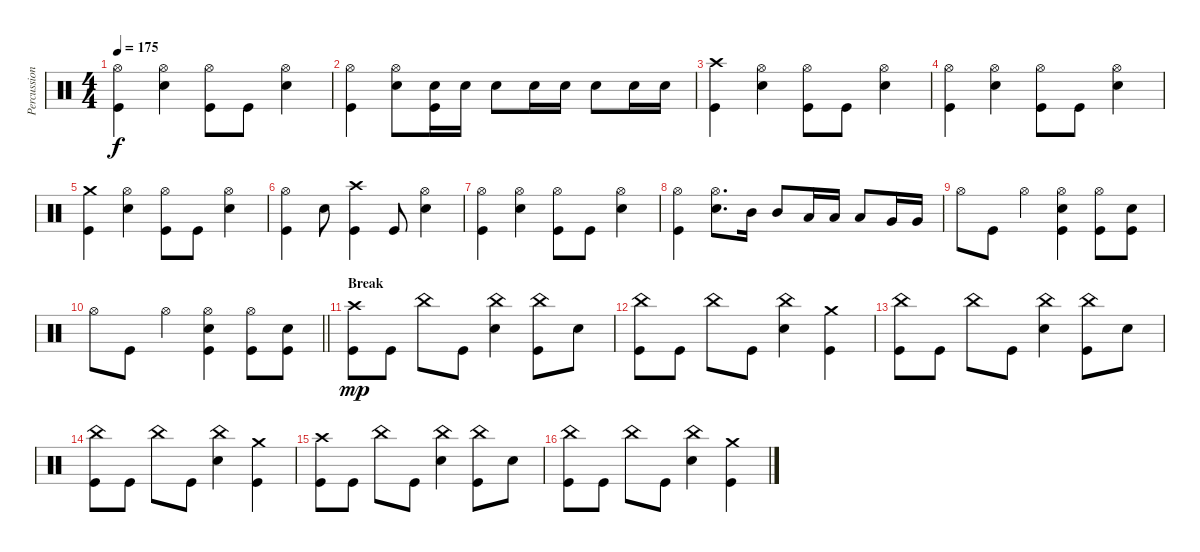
\track ("Percussion" "Percussion") {instrument percussion}
\staff {score}
\articulation defaults
\ts (4 4)
\tempo 175
\clef neutral
\ks c
("Hi-Hat (open)" "Kick (hit)").4{dy f} ("Hi-Hat (open)" "Electric Snare (hit)").4 ("Hi-Hat (open)" "Kick (hit)").8 "Kick (hit)".8 ("Hi-Hat (open)" "Electric Snare (hit)").4 |
("Hi-Hat (open)" "Kick (hit)").4 ("Hi-Hat (open)" "Electric Snare (hit)").8 ("Electric Snare (hit)" "Kick (hit)").16 "Electric Snare (hit)".16 "Electric Snare (hit)".8 "Electric Snare (hit)".16 "Electric Snare (hit)".16 "Electric Snare (hit)".8 "Electric Snare (hit)".16 "Electric Snare (hit)".16 |
("Crash high (hit)" "Kick (hit)").4 ("Hi-Hat (open)" "Electric Snare (hit)").4 ("Hi-Hat (open)" "Kick (hit)").8 "Kick (hit)".8 ("Hi-Hat (open)" "Electric Snare (hit)").4 |
("Hi-Hat (open)" "Kick (hit)").4 ("Hi-Hat (open)" "Electric Snare (hit)").4 ("Hi-Hat (open)" "Kick (hit)").8 "Kick (hit)".8 ("Hi-Hat (open)" "Electric Snare (hit)").4 |
("Crash medium (hit)" "Kick (hit)").4 ("Hi-Hat (open)" "Electric Snare (hit)").4 ("Hi-Hat (open)" "Kick (hit)").8 "Kick (hit)".8 ("Hi-Hat (open)" "Electric Snare (hit)").4 |
("Hi-Hat (open)" "Kick (hit)").4 "Electric Snare (hit)".8 ("Crash high (hit)" "Kick (hit)").4 "Kick (hit)".8 ("Hi-Hat (open)" "Electric Snare (hit)").4 |
("Hi-Hat (open)" "Kick (hit)").4 ("Hi-Hat (open)" "Electric Snare (hit)").4 ("Hi-Hat (open)" "Kick (hit)").8 "Kick (hit)".8 ("Hi-Hat (open)" "Electric Snare (hit)").4 |
("Hi-Hat (open)" "Kick (hit)").4 ("Hi-Hat (open)" "Electric Snare (hit)").8{d} "Mid Tom (hit)".16 "Mid Tom (hit)".8 "Low Tom (hit)".16 "Low Tom (hit)".16 "Low Tom (hit)".8 "Very Low Tom (hit)".16 "Very Low Tom (hit)".16 |
"Hi-Hat (open)".8 "Kick (hit)".8 "Hi-Hat (open)".4 ("Hi-Hat (open)" "Electric Snare (hit)" "Kick (hit)").4 ("Hi-Hat (open)" "Kick (hit)").8 ("Electric Snare (hit)" "Kick (hit)").8 |
\barLineRight lightlight "Hi-Hat (open)".8 "Kick (hit)".8 "Hi-Hat (open)".4
("Hi-Hat (open)" "Electric Snare (hit)" "Kick (hit)").4 ("Hi-Hat (open)" "Kick (hit)").8 ("Electric Snare (hit)" "Kick (hit)").8 |
\section ("" "Break")
("Crash high (hit)" "Kick (hit)").8{dy mp balance 16} "Kick (hit)".8{balance 0} "China (hit)".8 "Kick (hit)".8 ("China (hit)" "Electric Snare (hit)").4 ("China (hit)" "Kick (hit)").8 "Electric Snare (hit)".8 |
("China (hit)" "Kick (hit)").8 "Kick (hit)".8 "China (hit)".8 "Kick (hit)".8 ("China (hit)" "Electric Snare (hit)").4 ("Crash medium (hit)" "Kick (hit)").4 |
("China (hit)" "Kick (hit)").8 "Kick (hit)".8 "China (hit)".8 "Kick (hit)".8 ("China (hit)" "Electric Snare (hit)").4 ("China (hit)" "Kick (hit)").8 "Electric Snare (hit)".8 |
("China (hit)" "Kick (hit)").8 "Kick (hit)".8 "China (hit)".8 "Kick (hit)".8 ("China (hit)" "Electric Snare (hit)").4 ("Crash medium (hit)" "Kick (hit)").4 |
("Crash high (hit)" "Kick (hit)").8{balance 16} "Kick (hit)".8 "China (hit)".8 "Kick (hit)".8 ("China (hit)" "Electric Snare (hit)").4 ("China (hit)" "Kick (hit)").8 "Electric Snare (hit)".8 |
("China (hit)" "Kick (hit)").8 "Kick (hit)".8 "China (hit)".8 "Kick (hit)".8 ("China (hit)" "Electric Snare (hit)").4 ("Crash medium (hit)" "Kick (hit)").4
